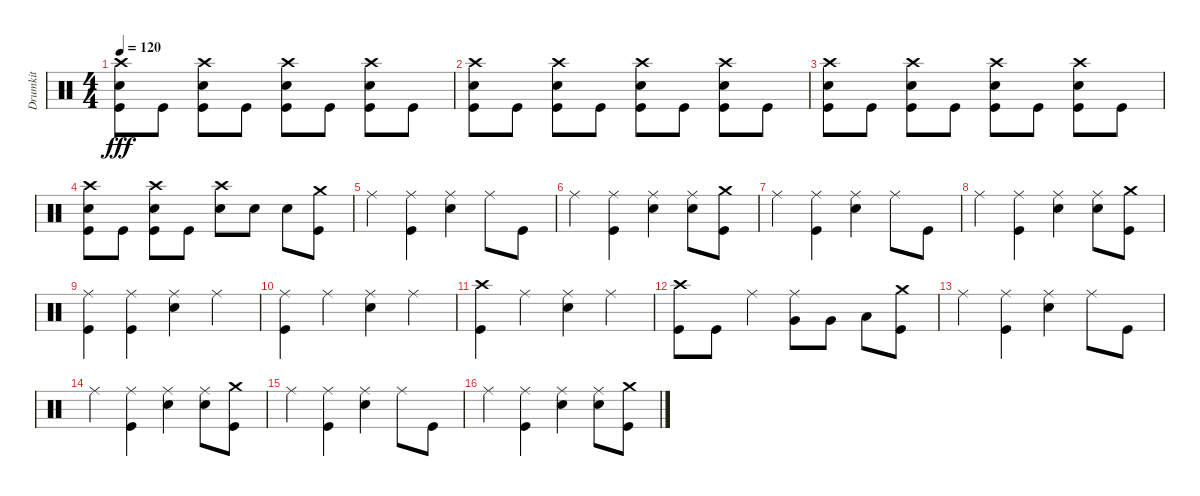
\track ("Drumkit" "Drumkit") {instrument percussion}
\staff {score}
\articulation defaults
\ts (4 4)
\tempo 120
\clef neutral
\ks c
("Kick (hit)" "Snare (hit) 2" "Crash high (hit)").8{dy fff} "Kick (hit)".8 ("Kick (hit)" "Snare (hit) 2" "Crash high (hit)").8 "Kick (hit)".8 ("Kick (hit)" "Snare (hit) 2" "Crash high (hit)").8 "Kick (hit)".8 ("Kick (hit)" "Snare (hit) 2" "Crash high (hit)").8 "Kick (hit)".8 |
("Kick (hit)" "Snare (hit) 2" "Crash high (hit)").8 "Kick (hit)".8 ("Kick (hit)" "Snare (hit) 2" "Crash high (hit)").8 "Kick (hit)".8 ("Kick (hit)" "Snare (hit) 2" "Crash high (hit)").8 "Kick (hit)".8 ("Kick (hit)" "Snare (hit) 2" "Crash high (hit)").8 "Kick (hit)".8 |
("Kick (hit)" "Snare (hit) 2" "Crash high (hit)").8 "Kick (hit)".8 ("Kick (hit)" "Snare (hit) 2" "Crash high (hit)").8 "Kick (hit)".8 ("Kick (hit)" "Snare (hit) 2" "Crash high (hit)").8 "Kick (hit)".8 ("Kick (hit)" "Snare (hit) 2" "Crash high (hit)").8 "Kick (hit)".8 |
("Kick (hit)" "Snare (hit) 2" "Crash high (hit)").8 "Kick (hit)".8 ("Kick (hit)" "Snare (hit) 2" "Crash high (hit)").8 "Kick (hit)".8 ("Snare (hit) 2" "Crash high (hit)").8 "Snare (hit) 2".8 "Snare (hit) 2".8 ("Crash medium (hit)" "Kick (hit)").8 |
"Ride (middle)".4 ("Ride (middle)" "Kick (hit)").4 ("Ride (middle)" "Snare (hit) 2").4 "Ride (middle)".8 "Kick (hit)".8 |
"Ride (middle)".4 ("Ride (middle)" "Kick (hit)").4 ("Ride (middle)" "Snare (hit) 2").4 ("Ride (middle)" "Snare (hit) 2").8 ("Kick (hit)" "Crash medium (hit)").8 |
"Ride (middle)".4 ("Ride (middle)" "Kick (hit)").4 ("Ride (middle)" "Snare (hit) 2").4 "Ride (middle)".8 "Kick (hit)".8 |
"Ride (middle)".4 ("Ride (middle)" "Kick (hit)").4 ("Ride (middle)" "Snare (hit) 2").4 ("Ride (middle)" "Snare (hit) 2").8 ("Kick (hit)" "Crash medium (hit)").8 |
("Ride (middle)" "Kick (hit)").4 ("Ride (middle)" "Kick (hit)").4 ("Ride (middle)" "Snare (hit) 2").4 "Ride (middle)".4 |
("Ride (middle)" "Kick (hit)").4 "Ride (middle)".4 ("Ride (middle)" "Snare (hit) 2").4 "Ride (middle)".4 |
("Kick (hit)" "Crash high (hit)").4 "Ride (middle)".4 ("Ride (middle)" "Snare (hit) 2").4 "Ride (middle)".4 |
("Kick (hit)" "Crash high (hit)").8 "Kick (hit)".8 "Ride (middle)".4 ("Ride (middle)" "Very Low Tom (hit)").8 "Very Low Tom (hit)".8 "Low Tom (hit)".8 ("Crash medium (hit)" "Kick (hit)").8 |
"Ride (middle)".4 ("Ride (middle)" "Kick (hit)").4 ("Ride (middle)" "Snare (hit) 2").4 "Ride (middle)".8 "Kick (hit)".8 |
"Ride (middle)".4 ("Ride (middle)" "Kick (hit)").4 ("Ride (middle)" "Snare (hit) 2").4 ("Ride (middle)" "Snare (hit) 2").8 ("Kick (hit)" "Crash medium (hit)").8 |
"Ride (middle)".4 ("Ride (middle)" "Kick (hit)").4 ("Ride (middle)" "Snare (hit) 2").4 "Ride (middle)".8 "Kick (hit)".8 |
"Ride (middle)".4 ("Ride (middle)" "Kick (hit)").4 ("Ride (middle)" "Snare (hit) 2").4 ("Ride (middle)" "Snare (hit) 2").8 ("Kick (hit)" "Crash medium (hit)").8
